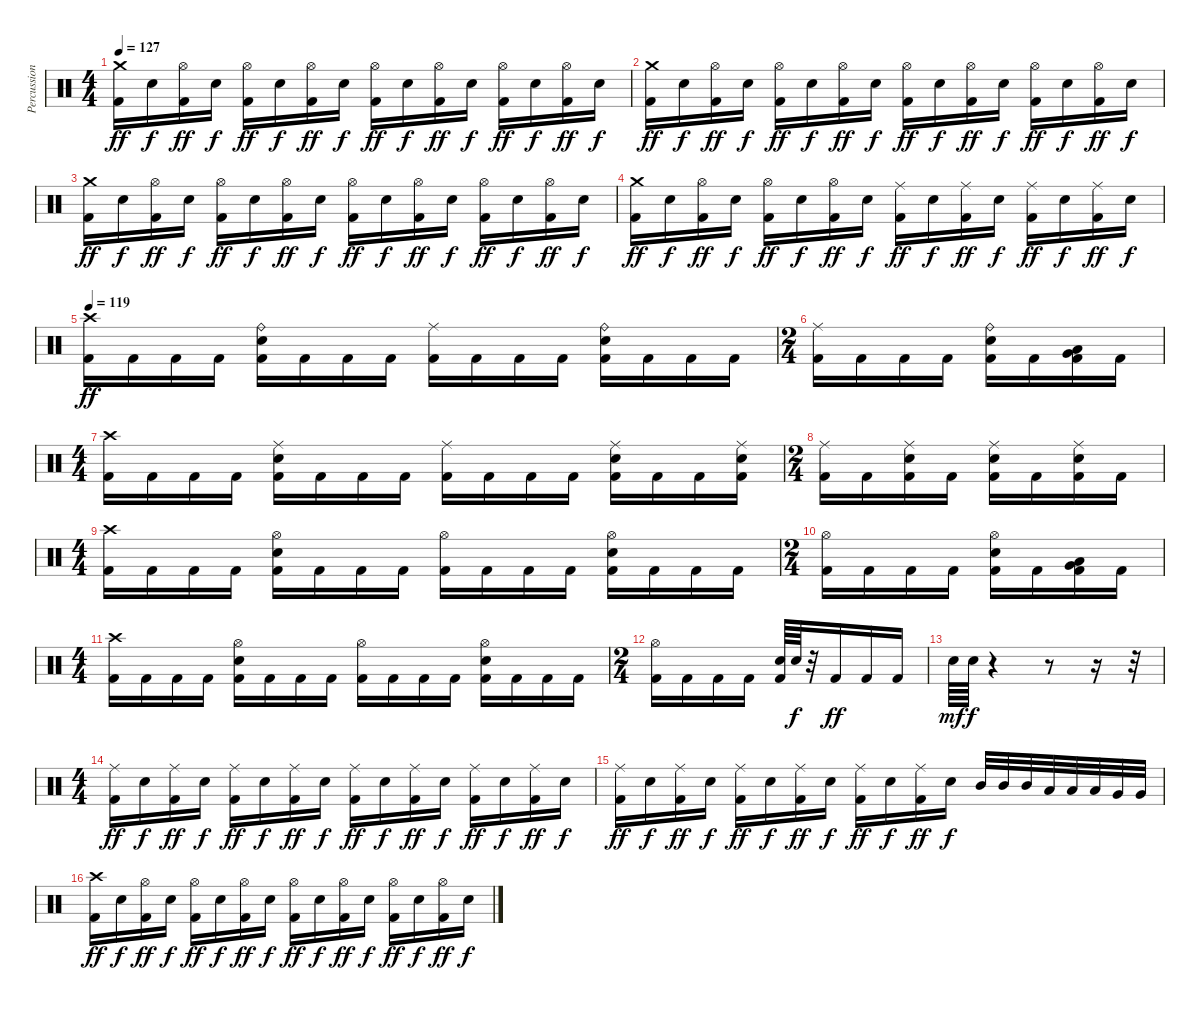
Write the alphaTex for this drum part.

\track ("Percussion" "Percussion") {instrument percussion}
\staff {score}
\articulation defaults
\ts (4 4)
\tempo 127
\clef neutral
\ks c
("Crash medium (hit)" "Kick (hit) 2").16{dy ff} "Electric Snare (hit)".16{dy f} ("Hi-Hat (open)" "Kick (hit) 2").16{dy ff} "Electric Snare (hit)".16{dy f} ("Hi-Hat (open)" "Kick (hit) 2").16{dy ff} "Electric Snare (hit)".16{dy f} ("Hi-Hat (open)" "Kick (hit) 2").16{dy ff} "Electric Snare (hit)".16{dy f} ("Hi-Hat (open)" "Kick (hit) 2").16{dy ff} "Electric Snare (hit)".16{dy f} ("Hi-Hat (open)" "Kick (hit) 2").16{dy ff} "Electric Snare (hit)".16{dy f} ("Hi-Hat (open)" "Kick (hit) 2").16{dy ff} "Electric Snare (hit)".16{dy f} ("Hi-Hat (open)" "Kick (hit) 2").16{dy ff} "Electric Snare (hit)".16{dy f} |
("Crash medium (hit)" "Kick (hit) 2").16{dy ff} "Electric Snare (hit)".16{dy f} ("Hi-Hat (open)" "Kick (hit) 2").16{dy ff} "Electric Snare (hit)".16{dy f} ("Hi-Hat (open)" "Kick (hit) 2").16{dy ff} "Electric Snare (hit)".16{dy f} ("Hi-Hat (open)" "Kick (hit) 2").16{dy ff} "Electric Snare (hit)".16{dy f} ("Hi-Hat (open)" "Kick (hit) 2").16{dy ff} "Electric Snare (hit)".16{dy f} ("Hi-Hat (open)" "Kick (hit) 2").16{dy ff} "Electric Snare (hit)".16{dy f} ("Hi-Hat (open)" "Kick (hit) 2").16{dy ff} "Electric Snare (hit)".16{dy f} ("Hi-Hat (open)" "Kick (hit) 2").16{dy ff} "Electric Snare (hit)".16{dy f} |
("Crash medium (hit)" "Kick (hit) 2").16{dy ff} "Electric Snare (hit)".16{dy f} ("Hi-Hat (open)" "Kick (hit) 2").16{dy ff} "Electric Snare (hit)".16{dy f} ("Hi-Hat (open)" "Kick (hit) 2").16{dy ff} "Electric Snare (hit)".16{dy f} ("Hi-Hat (open)" "Kick (hit) 2").16{dy ff} "Electric Snare (hit)".16{dy f} ("Hi-Hat (open)" "Kick (hit) 2").16{dy ff} "Electric Snare (hit)".16{dy f} ("Hi-Hat (open)" "Kick (hit) 2").16{dy ff} "Electric Snare (hit)".16{dy f} ("Hi-Hat (open)" "Kick (hit) 2").16{dy ff} "Electric Snare (hit)".16{dy f} ("Hi-Hat (open)" "Kick (hit) 2").16{dy ff} "Electric Snare (hit)".16{dy f} |
("Crash medium (hit)" "Kick (hit) 2").16{dy ff} "Electric Snare (hit)".16{dy f} ("Hi-Hat (open)" "Kick (hit) 2").16{dy ff} "Electric Snare (hit)".16{dy f} ("Hi-Hat (open)" "Kick (hit) 2").16{dy ff} "Electric Snare (hit)".16{dy f} ("Hi-Hat (open)" "Kick (hit) 2").16{dy ff} "Electric Snare (hit)".16{dy f} ("Ride (middle)" "Kick (hit) 2").16{dy ff} "Electric Snare (hit)".16{dy f} ("Ride (middle)" "Kick (hit) 2").16{dy ff} "Electric Snare (hit)".16{dy f} ("Ride (middle)" "Kick (hit) 2").16{dy ff} "Electric Snare (hit)".16{dy f} ("Ride (middle)" "Kick (hit) 2").16{dy ff} "Electric Snare (hit)".16{dy f} |
\tempo 119
("Crash high (hit)" "Kick (hit) 2").16{dy ff} "Kick (hit) 2".16 "Kick (hit) 2".16 "Kick (hit) 2".16 ("Ride (bell)" "Electric Snare (hit)" "Kick (hit) 2").16 "Kick (hit) 2".16 "Kick (hit) 2".16 "Kick (hit) 2".16 ("Ride (middle)" "Kick (hit) 2").16 "Kick (hit) 2".16 "Kick (hit) 2".16 "Kick (hit) 2".16 ("Ride (bell)" "Electric Snare (hit)" "Kick (hit) 2").16 "Kick (hit) 2".16 "Kick (hit) 2".16 "Kick (hit) 2".16 |
\ts (2 4)
("Ride (middle)" "Kick (hit) 2").16 "Kick (hit) 2".16 "Kick (hit) 2".16 "Kick (hit) 2".16 ("Ride (bell)" "Electric Snare (hit)" "Kick (hit) 2").16 "Kick (hit) 2".16 ("Low Tom (hit)" "Very Low Tom (hit)" "Kick (hit) 2").16 "Kick (hit) 2".16 |
\ts (4 4)
("Crash high (hit)" "Kick (hit) 2").16 "Kick (hit) 2".16 "Kick (hit) 2".16 "Kick (hit) 2".16 ("Ride (middle)" "Electric Snare (hit)" "Kick (hit) 2").16 "Kick (hit) 2".16 "Kick (hit) 2".16 "Kick (hit) 2".16 ("Ride (middle)" "Kick (hit) 2").16 "Kick (hit) 2".16 "Kick (hit) 2".16 "Kick (hit) 2".16 ("Ride (middle)" "Electric Snare (hit)" "Kick (hit) 2").16 "Kick (hit) 2".16 "Kick (hit) 2".16 ("Ride (middle)" "Electric Snare (hit)" "Kick (hit) 2").16 |
\ts (2 4)
("Ride (middle)" "Kick (hit) 2").16 "Kick (hit) 2".16 ("Ride (middle)" "Electric Snare (hit)" "Kick (hit) 2").16 "Kick (hit) 2".16 ("Ride (middle)" "Electric Snare (hit)" "Kick (hit) 2").16 "Kick (hit) 2".16 ("Ride (middle)" "Electric Snare (hit)" "Kick (hit) 2").16 "Kick (hit) 2".16 |
\ts (4 4)
("Crash high (hit)" "Kick (hit) 2").16 "Kick (hit) 2".16 "Kick (hit) 2".16 "Kick (hit) 2".16 ("Hi-Hat (open)" "Electric Snare (hit)" "Kick (hit) 2").16 "Kick (hit) 2".16 "Kick (hit) 2".16 "Kick (hit) 2".16 ("Hi-Hat (open)" "Kick (hit) 2").16 "Kick (hit) 2".16 "Kick (hit) 2".16 "Kick (hit) 2".16 ("Hi-Hat (open)" "Electric Snare (hit)" "Kick (hit) 2").16 "Kick (hit) 2".16 "Kick (hit) 2".16 "Kick (hit) 2".16 |
\ts (2 4)
("Hi-Hat (open)" "Kick (hit) 2").16 "Kick (hit) 2".16 "Kick (hit) 2".16 "Kick (hit) 2".16 ("Hi-Hat (open)" "Electric Snare (hit)" "Kick (hit) 2").16 "Kick (hit) 2".16 ("Low Tom (hit)" "Very Low Tom (hit)" "Kick (hit) 2").16 "Kick (hit) 2".16 |
\ts (4 4)
("Crash high (hit)" "Kick (hit) 2").16 "Kick (hit) 2".16 "Kick (hit) 2".16 "Kick (hit) 2".16 ("Hi-Hat (open)" "Electric Snare (hit)" "Kick (hit) 2").16 "Kick (hit) 2".16 "Kick (hit) 2".16 "Kick (hit) 2".16 ("Hi-Hat (open)" "Kick (hit) 2").16 "Kick (hit) 2".16 "Kick (hit) 2".16 "Kick (hit) 2".16 ("Hi-Hat (open)" "Electric Snare (hit)" "Kick (hit) 2").16 "Kick (hit) 2".16 "Kick (hit) 2".16 "Kick (hit) 2".16 |
\ts (2 4)
("Hi-Hat (open)" "Kick (hit) 2").16 "Kick (hit) 2".16 "Kick (hit) 2".16 "Kick (hit) 2".16 ("Electric Snare (hit)" "Kick (hit) 2").64 "Electric Snare (hit)".64{dy f} r.32 "Kick (hit) 2".16{dy ff} "Kick (hit) 2".16 "Kick (hit) 2".16 |
"Electric Snare (hit)".64{dy mf} "Electric Snare (hit)".64{dy f} r.4 r.8 r.16 r.32 |
\ts (4 4)
("Ride (middle)" "Kick (hit) 2").16{dy ff} "Electric Snare (hit)".16{dy f} ("Ride (middle)" "Kick (hit) 2").16{dy ff} "Electric Snare (hit)".16{dy f} ("Ride (middle)" "Kick (hit) 2").16{dy ff} "Electric Snare (hit)".16{dy f} ("Ride (middle)" "Kick (hit) 2").16{dy ff} "Electric Snare (hit)".16{dy f} ("Ride (middle)" "Kick (hit) 2").16{dy ff} "Electric Snare (hit)".16{dy f} ("Ride (middle)" "Kick (hit) 2").16{dy ff} "Electric Snare (hit)".16{dy f} ("Ride (middle)" "Kick (hit) 2").16{dy ff} "Electric Snare (hit)".16{dy f} ("Ride (middle)" "Kick (hit) 2").16{dy ff} "Electric Snare (hit)".16{dy f} |
("Ride (middle)" "Kick (hit) 2").16{dy ff} "Electric Snare (hit)".16{dy f} ("Ride (middle)" "Kick (hit) 2").16{dy ff} "Electric Snare (hit)".16{dy f} ("Ride (middle)" "Kick (hit) 2").16{dy ff} "Electric Snare (hit)".16{dy f} ("Ride (middle)" "Kick (hit) 2").16{dy ff} "Electric Snare (hit)".16{dy f} ("Ride (middle)" "Kick (hit) 2").16{dy ff} "Electric Snare (hit)".16{dy f} ("Ride (middle)" "Kick (hit) 2").16{dy ff} "Electric Snare (hit)".16{dy f} "Mid Tom (hit)".32 "Mid Tom (hit)".32 "Mid Tom (hit)".32 "Low Tom (hit)".32 "Low Tom (hit)".32 "Low Tom (hit)".32 "Very Low Tom (hit)".32 "Very Low Tom (hit)".32 |
("Crash high (hit)" "Kick (hit) 2").16{dy ff} "Electric Snare (hit)".16{dy f} ("Hi-Hat (open)" "Kick (hit) 2").16{dy ff} "Electric Snare (hit)".16{dy f} ("Hi-Hat (open)" "Kick (hit) 2").16{dy ff} "Electric Snare (hit)".16{dy f} ("Hi-Hat (open)" "Kick (hit) 2").16{dy ff} "Electric Snare (hit)".16{dy f} ("Hi-Hat (open)" "Kick (hit) 2").16{dy ff} "Electric Snare (hit)".16{dy f} ("Hi-Hat (open)" "Kick (hit) 2").16{dy ff} "Electric Snare (hit)".16{dy f} ("Hi-Hat (open)" "Kick (hit) 2").16{dy ff} "Electric Snare (hit)".16{dy f} ("Hi-Hat (open)" "Kick (hit) 2").16{dy ff} "Electric Snare (hit)".16{dy f}
